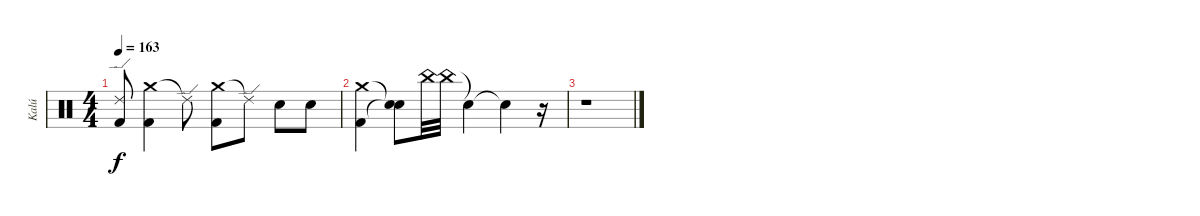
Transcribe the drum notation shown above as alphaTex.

\track ("Kalú" "Kalú") {instrument percussion}
\staff {score}
\articulation defaults
\ts (4 4)
\tempo 163
\clef neutral
\ks c
("Ride (edge) 2" "Kick (hit) 2").8{dy f} ("Crash medium (hit)" "Kick (hit) 2").4 "Ride (edge) 2"{t}.8 ("Crash medium (hit)" "Kick (hit) 2").8 "Ride (edge) 2"{t}.8 "Snare (hit) 2".8 "Snare (hit) 2".8 |
("Crash medium (hit)" "Kick (hit) 2").4 ("Snare (hit)"{t} "Snare (hit)"{t}).8 "China (hit)".32 "China (hit)".32 "Snare (hit)"{t}.4 "Snare (hit)"{t}.4 r.16 |
r.1
